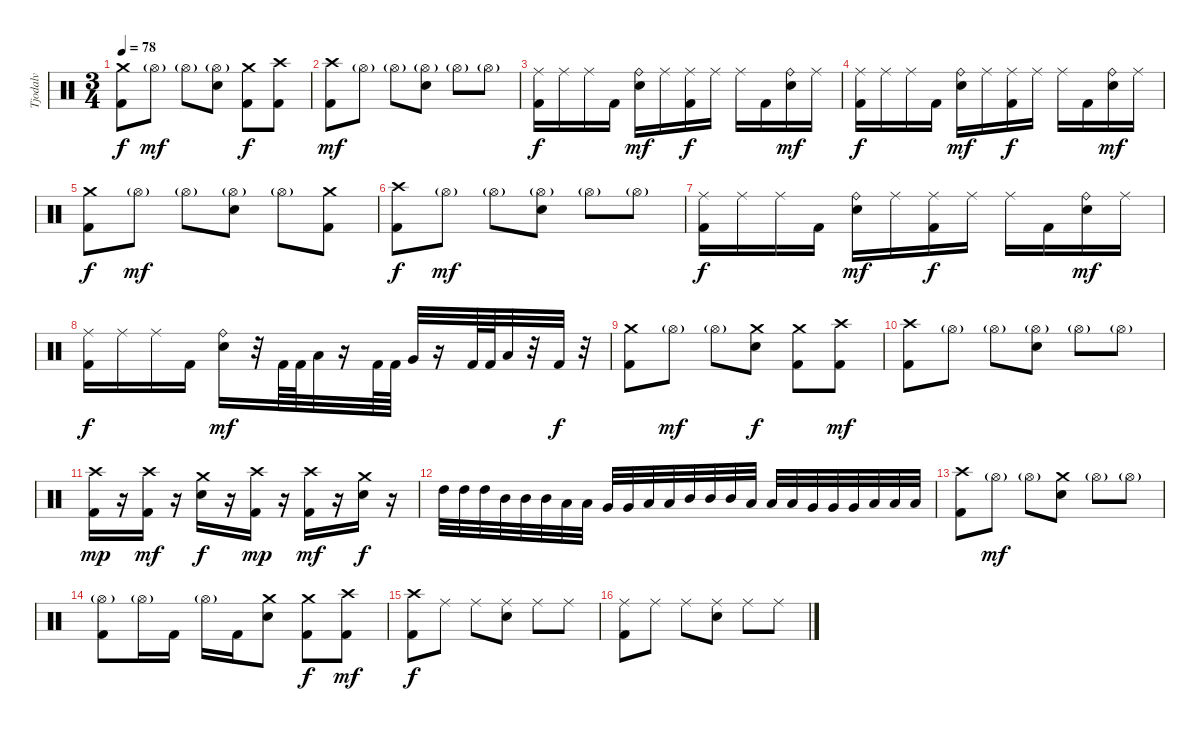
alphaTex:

\track ("Tjodalv" "Tjodalv") {instrument percussion}
\staff {score}
\articulation defaults
\ts (3 4)
\tempo 78
\clef neutral
\ks c
("Crash medium (hit)" "Kick (hit) 2").8{dy f} "Hi-Hat (open)"{g}.8{dy mf} "Hi-Hat (open)"{g}.8 ("Hi-Hat (open)"{g} "Electric Snare (hit)").8 ("Crash medium (hit)" "Kick (hit) 2").8{dy f} ("Crash high (hit)" "Kick (hit) 2").8 |
("Crash high (hit)" "Kick (hit) 2").8{dy mf} "Hi-Hat (open)"{g}.8 "Hi-Hat (open)"{g}.8 ("Hi-Hat (open)"{g} "Electric Snare (hit)").8 "Hi-Hat (open)"{g}.8 "Hi-Hat (open)"{g}.8 |
("Ride (middle)" "Kick (hit) 2").16{dy f} "Ride (middle)".16 "Ride (middle)".16 "Kick (hit) 2".16 ("Ride (bell)" "Electric Snare (hit)").16{dy mf} "Ride (middle)".16 ("Ride (middle)" "Kick (hit) 2").16{dy f} "Ride (middle)".16 "Ride (middle)".16 "Kick (hit) 2".16 ("Ride (bell)" "Electric Snare (hit)").16{dy mf} "Ride (middle)".16 |
("Ride (middle)" "Kick (hit) 2").16{dy f} "Ride (middle)".16 "Ride (middle)".16 "Kick (hit) 2".16 ("Ride (bell)" "Electric Snare (hit)").16{dy mf} "Ride (middle)".16 ("Ride (middle)" "Kick (hit) 2").16{dy f} "Ride (middle)".16 "Ride (middle)".16 "Kick (hit) 2".16 ("Ride (bell)" "Electric Snare (hit)").16{dy mf} "Ride (middle)".16 |
("Crash medium (hit)" "Kick (hit) 2").8{dy f} "Hi-Hat (open)"{g}.8{dy mf} "Hi-Hat (open)"{g}.8 ("Hi-Hat (open)"{g} "Electric Snare (hit)").8 "Hi-Hat (open)"{g}.8 ("Crash medium (hit)" "Kick (hit) 2").8 |
("Crash high (hit)" "Kick (hit) 2").8{dy f} "Hi-Hat (open)"{g}.8{dy mf} "Hi-Hat (open)"{g}.8 ("Hi-Hat (open)"{g} "Electric Snare (hit)").8 "Hi-Hat (open)"{g}.8 "Hi-Hat (open)"{g}.8 |
("Ride (middle)" "Kick (hit) 2").16{dy f} "Ride (middle)".16 "Ride (middle)".16 "Kick (hit) 2".16 ("Ride (bell)" "Electric Snare (hit)").16{dy mf} "Ride (middle)".16 ("Ride (middle)" "Kick (hit) 2").16{dy f} "Ride (middle)".16 "Ride (middle)".16 "Kick (hit) 2".16 ("Ride (bell)" "Electric Snare (hit)").16{dy mf} "Ride (middle)".16 |
("Ride (middle)" "Kick (hit) 2").16{dy f} "Ride (middle)".16 "Ride (middle)".16 "Kick (hit) 2".16 ("Ride (bell)" "Electric Snare (hit)").16{dy mf} r.32 "Kick (hit) 2".64 "Kick (hit) 2".64 "Low Tom (hit)".32 r.16 "Kick (hit) 2".64 "Kick (hit) 2".64 "Very Low Tom (hit)".32 r.16 "Kick (hit) 2".64 "Kick (hit) 2".64 "Low Floor Tom (hit)".32 r.32 "Kick (hit) 2".32{dy f} r.32 |
("Crash medium (hit)" "Kick (hit) 2").8 "Hi-Hat (open)"{g}.8{dy mf} "Hi-Hat (open)"{g}.8 ("Crash medium (hit)" "Electric Snare (hit)").8{dy f} ("Crash medium (hit)" "Kick (hit) 2").8 ("Crash high (hit)" "Kick (hit) 2").8{dy mf} |
("Crash high (hit)" "Kick (hit) 2").8 "Hi-Hat (open)"{g}.8 "Hi-Hat (open)"{g}.8 ("Hi-Hat (open)"{g} "Electric Snare (hit)").8 "Hi-Hat (open)"{g}.8 "Hi-Hat (open)"{g}.8 |
("Crash high (hit)" "Kick (hit) 2").16{dy mp} r.16 ("Crash high (hit)" "Kick (hit) 2").16{dy mf} r.16 ("Crash medium (hit)" "Electric Snare (hit)").16{dy f} r.16 ("Crash high (hit)" "Kick (hit) 2").16{dy mp} r.16 ("Crash high (hit)" "Kick (hit) 2").16{dy mf} r.16 ("Crash medium (hit)" "Electric Snare (hit)").16{dy f} r.16 |
"High Tom (hit)".32 "High Tom (hit)".32 "High Tom (hit)".32 "Mid Tom (hit)".32 "Mid Tom (hit)".32 "Mid Tom (hit)".32 "Low Tom (hit)".32 "Low Tom (hit)".32 "Very Low Tom (hit)".32 "Very Low Tom (hit)".32 "Low Floor Tom (hit)".32 "Low Floor Tom (hit)".32 "Mid Tom (hit)".32 "Mid Tom (hit)".32 "Mid Tom (hit)".32 "Low Tom (hit)".32 "Low Tom (hit)".32 "Low Tom (hit)".32 "Very Low Tom (hit)".32 "Very Low Tom (hit)".32 "Very Low Tom (hit)".32 "Low Floor Tom (hit)".32 "Low Floor Tom (hit)".32 "Low Floor Tom (hit)".32 |
("Crash high (hit)" "Kick (hit) 2").8 "Hi-Hat (open)"{g}.8{dy mf} "Hi-Hat (open)"{g}.8 ("Crash medium (hit)" "Electric Snare (hit)").8 "Hi-Hat (open)"{g}.8 "Hi-Hat (open)"{g}.8 |
("Hi-Hat (open)"{g} "Kick (hit) 2").8{volume 7} "Hi-Hat (open)"{g}.16 "Kick (hit) 2".16 "Hi-Hat (open)"{g}.16 "Kick (hit) 2".16 ("Crash medium (hit)" "Electric Snare (hit)").8 ("Crash medium (hit)" "Kick (hit) 2").8{dy f} ("Crash high (hit)" "Kick (hit) 2").8{dy mf} |
("Crash high (hit)" "Kick (hit) 2").8{dy f} "Ride (middle)".8 "Ride (middle)".8 ("Ride (middle)" "Electric Snare (hit)").8 "Ride (middle)".8 "Ride (middle)".8 |
("Ride (middle)" "Kick (hit) 2").8 "Ride (middle)".8 "Ride (middle)".8 ("Ride (middle)" "Electric Snare (hit)").8 "Ride (middle)".8 "Ride (middle)".8
